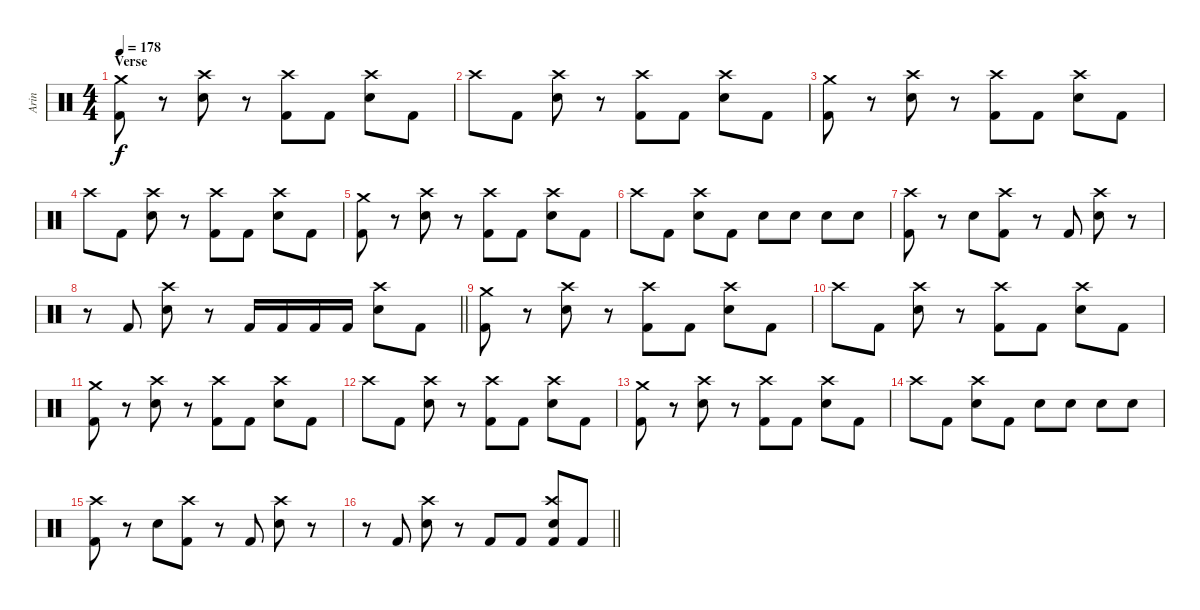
\track ("Arin" "Arin") {instrument percussion}
\staff {score}
\articulation defaults
\ts (4 4)
\section ("" "Verse")
\tempo 178
\clef neutral
\ks c
("Crash medium (hit)" "Kick (hit) 2").8{dy f} r.8 ("Crash high (hit)" "Snare (hit) 2").8 r.8 ("Crash high (hit)" "Kick (hit) 2").8 "Kick (hit) 2".8 ("Crash high (hit)" "Snare (hit) 2").8 "Kick (hit) 2".8 |
"Crash high (hit)".8 "Kick (hit) 2".8 ("Crash high (hit)" "Snare (hit) 2").8 r.8 ("Crash high (hit)" "Kick (hit) 2").8 "Kick (hit) 2".8 ("Crash high (hit)" "Snare (hit) 2").8 "Kick (hit) 2".8 |
("Crash medium (hit)" "Kick (hit) 2").8 r.8 ("Crash high (hit)" "Snare (hit) 2").8 r.8 ("Crash high (hit)" "Kick (hit) 2").8 "Kick (hit) 2".8 ("Crash high (hit)" "Snare (hit) 2").8 "Kick (hit) 2".8 |
"Crash high (hit)".8 "Kick (hit) 2".8 ("Crash high (hit)" "Snare (hit) 2").8 r.8 ("Crash high (hit)" "Kick (hit) 2").8 "Kick (hit) 2".8 ("Crash high (hit)" "Snare (hit) 2").8 "Kick (hit) 2".8 |
("Crash medium (hit)" "Kick (hit) 2").8 r.8 ("Crash high (hit)" "Snare (hit) 2").8 r.8 ("Crash high (hit)" "Kick (hit) 2").8 "Kick (hit) 2".8 ("Crash high (hit)" "Snare (hit) 2").8 "Kick (hit) 2".8 |
"Crash high (hit)".8 "Kick (hit) 2".8 ("Crash high (hit)" "Snare (hit) 2").8 "Kick (hit) 2".8 "Snare (hit) 2".8 "Snare (hit) 2".8 "Snare (hit) 2".8 "Snare (hit) 2".8 |
("Crash high (hit)" "Kick (hit) 2").8 r.8 "Snare (hit) 2".8 ("Crash high (hit)" "Kick (hit) 2").8 r.8 "Kick (hit) 2".8 ("Crash high (hit)" "Snare (hit) 2").8 r.8 |
\barLineRight lightlight
r.8 "Kick (hit) 2".8 ("Crash high (hit)" "Snare (hit) 2").8 r.8 "Kick (hit) 2".16 "Kick (hit) 2".16 "Kick (hit) 2".16 "Kick (hit) 2".16 ("Crash high (hit)" "Snare (hit) 2").8 "Kick (hit) 2".8 |
("Crash medium (hit)" "Kick (hit) 2").8 r.8 ("Crash high (hit)" "Snare (hit) 2").8 r.8 ("Crash high (hit)" "Kick (hit) 2").8 "Kick (hit) 2".8 ("Crash high (hit)" "Snare (hit) 2").8 "Kick (hit) 2".8 |
"Crash high (hit)".8 "Kick (hit) 2".8 ("Crash high (hit)" "Snare (hit) 2").8 r.8 ("Crash high (hit)" "Kick (hit) 2").8 "Kick (hit) 2".8 ("Crash high (hit)" "Snare (hit) 2").8 "Kick (hit) 2".8 |
("Crash medium (hit)" "Kick (hit) 2").8 r.8 ("Crash high (hit)" "Snare (hit) 2").8 r.8 ("Crash high (hit)" "Kick (hit) 2").8 "Kick (hit) 2".8 ("Crash high (hit)" "Snare (hit) 2").8 "Kick (hit) 2".8 |
"Crash high (hit)".8 "Kick (hit) 2".8 ("Crash high (hit)" "Snare (hit) 2").8 r.8 ("Crash high (hit)" "Kick (hit) 2").8 "Kick (hit) 2".8 ("Crash high (hit)" "Snare (hit) 2").8 "Kick (hit) 2".8 |
("Crash medium (hit)" "Kick (hit) 2").8 r.8 ("Crash high (hit)" "Snare (hit) 2").8 r.8 ("Crash high (hit)" "Kick (hit) 2").8 "Kick (hit) 2".8 ("Crash high (hit)" "Snare (hit) 2").8 "Kick (hit) 2".8 |
"Crash high (hit)".8 "Kick (hit) 2".8 ("Crash high (hit)" "Snare (hit) 2").8 "Kick (hit) 2".8 "Snare (hit) 2".8 "Snare (hit) 2".8 "Snare (hit) 2".8 "Snare (hit) 2".8 |
("Crash high (hit)" "Kick (hit) 2").8 r.8 "Snare (hit) 2".8 ("Crash high (hit)" "Kick (hit) 2").8 r.8 "Kick (hit) 2".8 ("Crash high (hit)" "Snare (hit) 2").8 r.8 |
\barLineRight lightlight
r.8 "Kick (hit) 2".8 ("Crash high (hit)" "Snare (hit) 2").8 r.8 "Kick (hit) 2".8 "Kick (hit) 2".8 ("Crash high (hit)" "Snare (hit) 2" "Kick (hit) 2").8 "Kick (hit) 2".8
